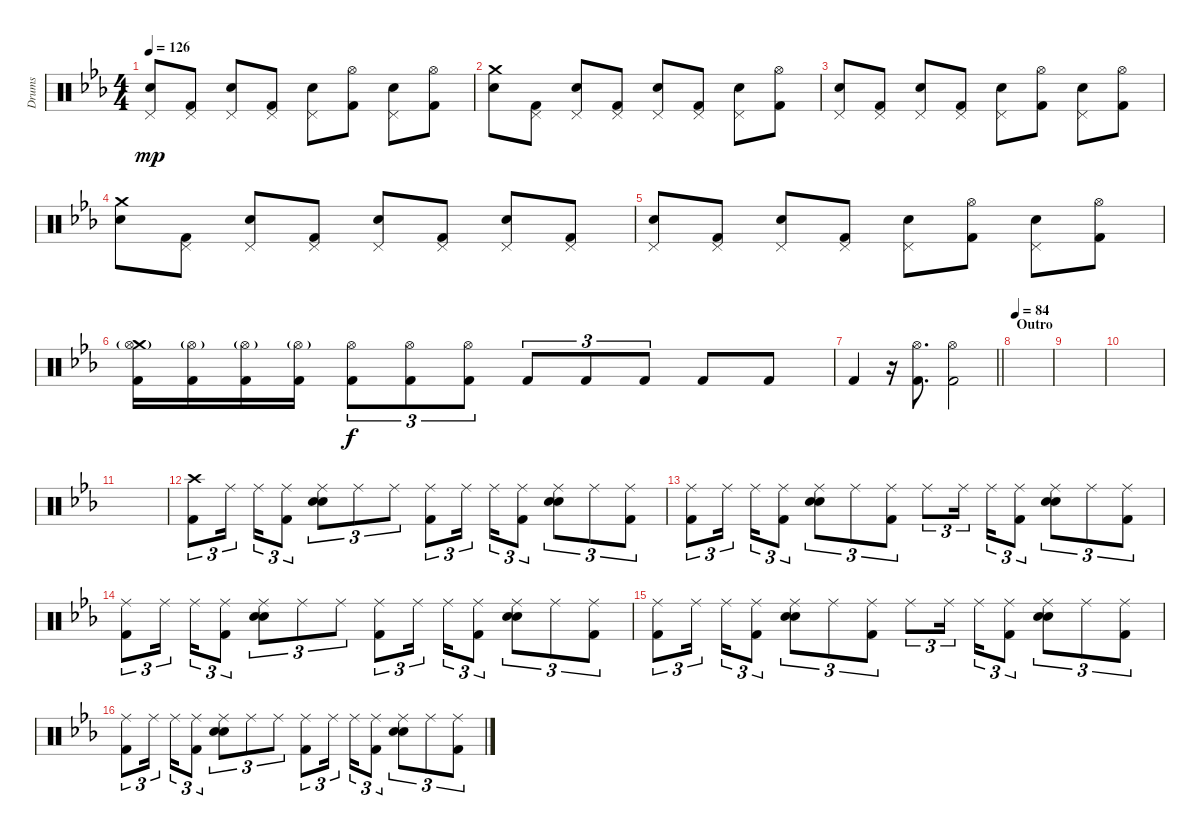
\track ("Drums" "Drums") {instrument percussion}
\staff {score}
\articulation defaults
\ts (4 4)
\tempo 126
\clef neutral
\ks eb
("Pedal Hi-Hat (hit)" "Electric Snare (hit)").8{dy mp} ("Pedal Hi-Hat (hit)" "Kick (hit) 2").8 ("Pedal Hi-Hat (hit)" "Electric Snare (hit)").8 ("Pedal Hi-Hat (hit)" "Kick (hit) 2").8 ("Pedal Hi-Hat (hit)" "Electric Snare (hit)").8 ("Hi-Hat (open)" "Kick (hit) 2").8 ("Pedal Hi-Hat (hit)" "Electric Snare (hit)").8 ("Hi-Hat (open)" "Kick (hit) 2").8 |
("Crash medium (hit)" "Electric Snare (hit)").8 ("Pedal Hi-Hat (hit)" "Kick (hit) 2").8 ("Pedal Hi-Hat (hit)" "Electric Snare (hit)").8 ("Pedal Hi-Hat (hit)" "Kick (hit) 2").8 ("Pedal Hi-Hat (hit)" "Electric Snare (hit)").8 ("Pedal Hi-Hat (hit)" "Kick (hit) 2").8 ("Pedal Hi-Hat (hit)" "Electric Snare (hit)").8 ("Hi-Hat (open)" "Kick (hit) 2").8 |
("Pedal Hi-Hat (hit)" "Electric Snare (hit)").8 ("Pedal Hi-Hat (hit)" "Kick (hit) 2").8 ("Pedal Hi-Hat (hit)" "Electric Snare (hit)").8 ("Pedal Hi-Hat (hit)" "Kick (hit) 2").8 ("Pedal Hi-Hat (hit)" "Electric Snare (hit)").8 ("Hi-Hat (open)" "Kick (hit) 2").8 ("Pedal Hi-Hat (hit)" "Electric Snare (hit)").8 ("Hi-Hat (open)" "Kick (hit) 2").8 |
("Crash medium (hit)" "Electric Snare (hit)").8 ("Pedal Hi-Hat (hit)" "Kick (hit) 2").8 ("Pedal Hi-Hat (hit)" "Electric Snare (hit)").8 ("Pedal Hi-Hat (hit)" "Kick (hit) 2").8 ("Pedal Hi-Hat (hit)" "Electric Snare (hit)").8 ("Pedal Hi-Hat (hit)" "Kick (hit) 2").8 ("Pedal Hi-Hat (hit)" "Electric Snare (hit)").8 ("Pedal Hi-Hat (hit)" "Kick (hit) 2").8 |
("Pedal Hi-Hat (hit)" "Electric Snare (hit)").8 ("Pedal Hi-Hat (hit)" "Kick (hit) 2").8 ("Pedal Hi-Hat (hit)" "Electric Snare (hit)").8 ("Pedal Hi-Hat (hit)" "Kick (hit) 2").8 ("Pedal Hi-Hat (hit)" "Electric Snare (hit)").8 ("Hi-Hat (open)" "Kick (hit) 2").8 ("Pedal Hi-Hat (hit)" "Electric Snare (hit)").8 ("Hi-Hat (open)" "Kick (hit) 2").8 |
("Crash medium (hit)" "Hi-Hat (open)"{g} "Kick (hit) 2").16 ("Hi-Hat (open)"{g} "Kick (hit) 2").16 ("Hi-Hat (open)"{g} "Kick (hit) 2").16 ("Hi-Hat (open)"{g} "Kick (hit) 2").16 ("Hi-Hat (open)" "Kick (hit) 2").8{tu (3 2) dy f} ("Hi-Hat (open)" "Kick (hit) 2").8{tu (3 2)} ("Hi-Hat (open)" "Kick (hit) 2").8{tu (3 2)} "Kick (hit) 2".8{tu (3 2)} "Kick (hit) 2".8{tu (3 2)} "Kick (hit) 2".8{tu (3 2)} "Kick (hit) 2".8 "Kick (hit) 2".8 |
\barLineRight lightlight "Kick (hit) 2".4
r.16 ("Hi-Hat (open)" "Kick (hit) 2").8{d} ("Hi-Hat (open)" "Kick (hit) 2").2 |
\section ("" "Outro")
\tempo 84
|
|
|
|
("Crash high (hit)" "Kick (hit) 2").8{tu (3 2)} "Ride (middle)".16{tu (3 2)} "Ride (middle)".16{tu (3 2)} ("Ride (middle)" "Kick (hit) 2").8{tu (3 2)} ("Ride (middle)" "Hand Clap (hit)" "Electric Snare (hit)").8{tu (3 2)} "Ride (middle)".8{tu (3 2)} "Ride (middle)".8{tu (3 2)} ("Ride (middle)" "Kick (hit) 2").8{tu (3 2)} "Ride (middle)".16{tu (3 2)} "Ride (middle)".16{tu (3 2)} ("Ride (middle)" "Kick (hit) 2").8{tu (3 2)} ("Ride (middle)" "Hand Clap (hit)" "Electric Snare (hit)").8{tu (3 2)} "Ride (middle)".8{tu (3 2)} ("Ride (middle)" "Kick (hit) 2").8{tu (3 2)} |
("Ride (middle)" "Kick (hit) 2").8{tu (3 2)} "Ride (middle)".16{tu (3 2)} "Ride (middle)".16{tu (3 2)} ("Ride (middle)" "Kick (hit) 2").8{tu (3 2)} ("Ride (middle)" "Hand Clap (hit)" "Electric Snare (hit)").8{tu (3 2)} "Ride (middle)".8{tu (3 2)} ("Ride (middle)" "Kick (hit) 2").8{tu (3 2)} "Ride (middle)".8{tu (3 2)} "Ride (middle)".16{tu (3 2)} "Ride (middle)".16{tu (3 2)} ("Ride (middle)" "Kick (hit) 2").8{tu (3 2)} ("Ride (middle)" "Hand Clap (hit)" "Electric Snare (hit)").8{tu (3 2)} "Ride (middle)".8{tu (3 2)} ("Ride (middle)" "Kick (hit) 2").8{tu (3 2)} |
("Ride (middle)" "Kick (hit) 2").8{tu (3 2)} "Ride (middle)".16{tu (3 2)} "Ride (middle)".16{tu (3 2)} ("Ride (middle)" "Kick (hit) 2").8{tu (3 2)} ("Ride (middle)" "Hand Clap (hit)" "Electric Snare (hit)").8{tu (3 2)} "Ride (middle)".8{tu (3 2)} "Ride (middle)".8{tu (3 2)} ("Ride (middle)" "Kick (hit) 2").8{tu (3 2)} "Ride (middle)".16{tu (3 2)} "Ride (middle)".16{tu (3 2)} ("Ride (middle)" "Kick (hit) 2").8{tu (3 2)} ("Ride (middle)" "Hand Clap (hit)" "Electric Snare (hit)").8{tu (3 2)} "Ride (middle)".8{tu (3 2)} ("Ride (middle)" "Kick (hit) 2").8{tu (3 2)} |
("Ride (middle)" "Kick (hit) 2").8{tu (3 2)} "Ride (middle)".16{tu (3 2)} "Ride (middle)".16{tu (3 2)} ("Ride (middle)" "Kick (hit) 2").8{tu (3 2)} ("Ride (middle)" "Hand Clap (hit)" "Electric Snare (hit)").8{tu (3 2)} "Ride (middle)".8{tu (3 2)} ("Ride (middle)" "Kick (hit) 2").8{tu (3 2)} "Ride (middle)".8{tu (3 2)} "Ride (middle)".16{tu (3 2)} "Ride (middle)".16{tu (3 2)} ("Ride (middle)" "Kick (hit) 2").8{tu (3 2)} ("Ride (middle)" "Hand Clap (hit)" "Electric Snare (hit)").8{tu (3 2)} "Ride (middle)".8{tu (3 2)} ("Ride (middle)" "Kick (hit) 2").8{tu (3 2)} |
("Ride (middle)" "Kick (hit) 2").8{tu (3 2)} "Ride (middle)".16{tu (3 2)} "Ride (middle)".16{tu (3 2)} ("Ride (middle)" "Kick (hit) 2").8{tu (3 2)} ("Ride (middle)" "Hand Clap (hit)" "Electric Snare (hit)").8{tu (3 2)} "Ride (middle)".8{tu (3 2)} "Ride (middle)".8{tu (3 2)} ("Ride (middle)" "Kick (hit) 2").8{tu (3 2)} "Ride (middle)".16{tu (3 2)} "Ride (middle)".16{tu (3 2)} ("Ride (middle)" "Kick (hit) 2").8{tu (3 2)} ("Ride (middle)" "Hand Clap (hit)" "Electric Snare (hit)").8{tu (3 2)} "Ride (middle)".8{tu (3 2)} ("Ride (middle)" "Kick (hit) 2").8{tu (3 2)}
